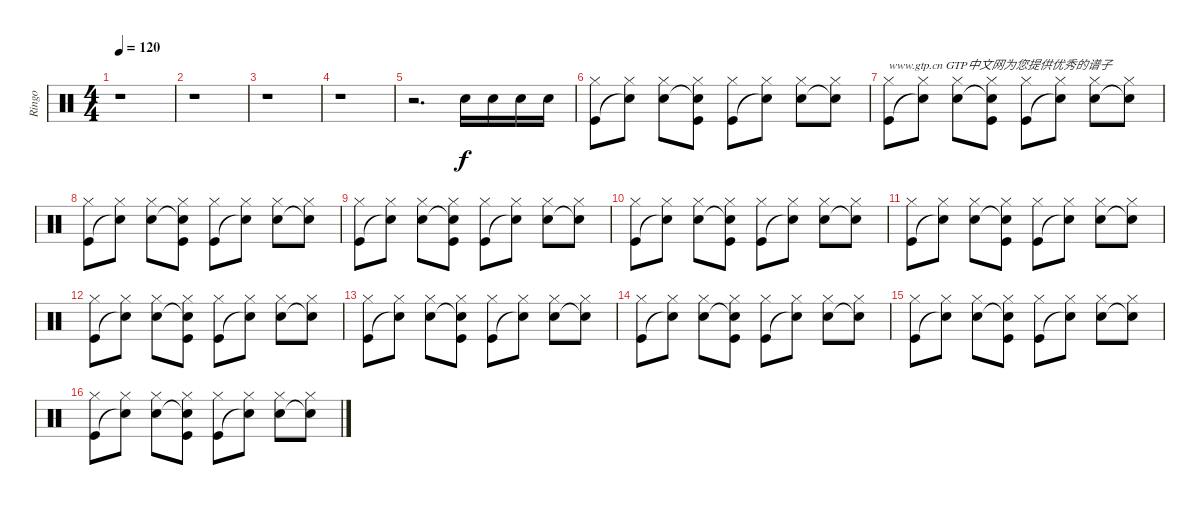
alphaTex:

\track ("Ringo" "Ringo") {instrument percussion}
\staff {score}
\articulation defaults
\ts (4 4)
\tempo 120
\clef neutral
\ks c
r.1{dy f} |
r.1 |
r.1 |
r.1 |
r.2{d} "Snare (hit) 2".16 "Snare (hit) 2".16 "Snare (hit) 2".16 "Snare (hit) 2".16 |
("Hi-Hat (closed)" "Kick (hit)").8 ("Hi-Hat (closed)" "Snare (hit)"{t}).8 ("Hi-Hat (closed)" "Snare (hit) 2").8 ("Hi-Hat (closed)" "Snare (hit)"{t} "Kick (hit)").8 ("Hi-Hat (closed)" "Kick (hit)").8 ("Hi-Hat (closed)" "Snare (hit)"{t}).8 ("Hi-Hat (closed)" "Snare (hit) 2").8 ("Hi-Hat (closed)" "Snare (hit)"{t}).8 |
("Hi-Hat (closed)" "Kick (hit)").8{txt "www.gtp.cn GTP中文网为您提供优秀的谱子"} ("Hi-Hat (closed)" "Snare (hit)"{t}).8 ("Hi-Hat (closed)" "Snare (hit) 2").8 ("Hi-Hat (closed)" "Snare (hit)"{t} "Kick (hit)").8 ("Hi-Hat (closed)" "Kick (hit)").8 ("Hi-Hat (closed)" "Snare (hit)"{t}).8 ("Hi-Hat (closed)" "Snare (hit) 2").8 ("Hi-Hat (closed)" "Snare (hit)"{t}).8 |
("Hi-Hat (closed)" "Kick (hit)").8 ("Hi-Hat (closed)" "Snare (hit)"{t}).8 ("Hi-Hat (closed)" "Snare (hit) 2").8 ("Hi-Hat (closed)" "Snare (hit)"{t} "Kick (hit)").8 ("Hi-Hat (closed)" "Kick (hit)").8 ("Hi-Hat (closed)" "Snare (hit)"{t}).8 ("Hi-Hat (closed)" "Snare (hit) 2").8 ("Hi-Hat (closed)" "Snare (hit)"{t}).8 |
("Hi-Hat (closed)" "Kick (hit)").8 ("Hi-Hat (closed)" "Snare (hit)"{t}).8 ("Hi-Hat (closed)" "Snare (hit) 2").8 ("Hi-Hat (closed)" "Snare (hit)"{t} "Kick (hit)").8 ("Hi-Hat (closed)" "Kick (hit)").8 ("Hi-Hat (closed)" "Snare (hit)"{t}).8 ("Hi-Hat (closed)" "Snare (hit) 2").8 ("Hi-Hat (closed)" "Snare (hit)"{t}).8 |
("Hi-Hat (closed)" "Kick (hit)").8 ("Hi-Hat (closed)" "Snare (hit)"{t}).8 ("Hi-Hat (closed)" "Snare (hit) 2").8 ("Hi-Hat (closed)" "Snare (hit)"{t} "Kick (hit)").8 ("Hi-Hat (closed)" "Kick (hit)").8 ("Hi-Hat (closed)" "Snare (hit)"{t}).8 ("Hi-Hat (closed)" "Snare (hit) 2").8 ("Hi-Hat (closed)" "Snare (hit)"{t}).8 |
("Hi-Hat (closed)" "Kick (hit)").8 ("Hi-Hat (closed)" "Snare (hit)"{t}).8 ("Hi-Hat (closed)" "Snare (hit) 2").8 ("Hi-Hat (closed)" "Snare (hit)"{t} "Kick (hit)").8 ("Hi-Hat (closed)" "Kick (hit)").8 ("Hi-Hat (closed)" "Snare (hit)"{t}).8 ("Hi-Hat (closed)" "Snare (hit) 2").8 ("Hi-Hat (closed)" "Snare (hit)"{t}).8 |
("Hi-Hat (closed)" "Kick (hit)").8 ("Hi-Hat (closed)" "Snare (hit)"{t}).8 ("Hi-Hat (closed)" "Snare (hit) 2").8 ("Hi-Hat (closed)" "Snare (hit)"{t} "Kick (hit)").8 ("Hi-Hat (closed)" "Kick (hit)").8 ("Hi-Hat (closed)" "Snare (hit)"{t}).8 ("Hi-Hat (closed)" "Snare (hit) 2").8 ("Hi-Hat (closed)" "Snare (hit)"{t}).8 |
("Hi-Hat (closed)" "Kick (hit)").8 ("Hi-Hat (closed)" "Snare (hit)"{t}).8 ("Hi-Hat (closed)" "Snare (hit) 2").8 ("Hi-Hat (closed)" "Snare (hit)"{t} "Kick (hit)").8 ("Hi-Hat (closed)" "Kick (hit)").8 ("Hi-Hat (closed)" "Snare (hit)"{t}).8 ("Hi-Hat (closed)" "Snare (hit) 2").8 ("Hi-Hat (closed)" "Snare (hit)"{t}).8 |
("Hi-Hat (closed)" "Kick (hit)").8 ("Hi-Hat (closed)" "Snare (hit)"{t}).8 ("Hi-Hat (closed)" "Snare (hit) 2").8 ("Hi-Hat (closed)" "Snare (hit)"{t} "Kick (hit)").8 ("Hi-Hat (closed)" "Kick (hit)").8 ("Hi-Hat (closed)" "Snare (hit)"{t}).8 ("Hi-Hat (closed)" "Snare (hit) 2").8 ("Hi-Hat (closed)" "Snare (hit)"{t}).8 |
("Hi-Hat (closed)" "Kick (hit)").8 ("Hi-Hat (closed)" "Snare (hit)"{t}).8 ("Hi-Hat (closed)" "Snare (hit) 2").8 ("Hi-Hat (closed)" "Snare (hit)"{t} "Kick (hit)").8 ("Hi-Hat (closed)" "Kick (hit)").8 ("Hi-Hat (closed)" "Snare (hit)"{t}).8 ("Hi-Hat (closed)" "Snare (hit) 2").8 ("Hi-Hat (closed)" "Snare (hit)"{t}).8 |
("Hi-Hat (closed)" "Kick (hit)").8 ("Hi-Hat (closed)" "Snare (hit)"{t}).8 ("Hi-Hat (closed)" "Snare (hit) 2").8 ("Hi-Hat (closed)" "Snare (hit)"{t} "Kick (hit)").8 ("Hi-Hat (closed)" "Kick (hit)").8 ("Hi-Hat (closed)" "Snare (hit)"{t}).8 ("Hi-Hat (closed)" "Snare (hit) 2").8 ("Hi-Hat (closed)" "Snare (hit)"{t}).8
